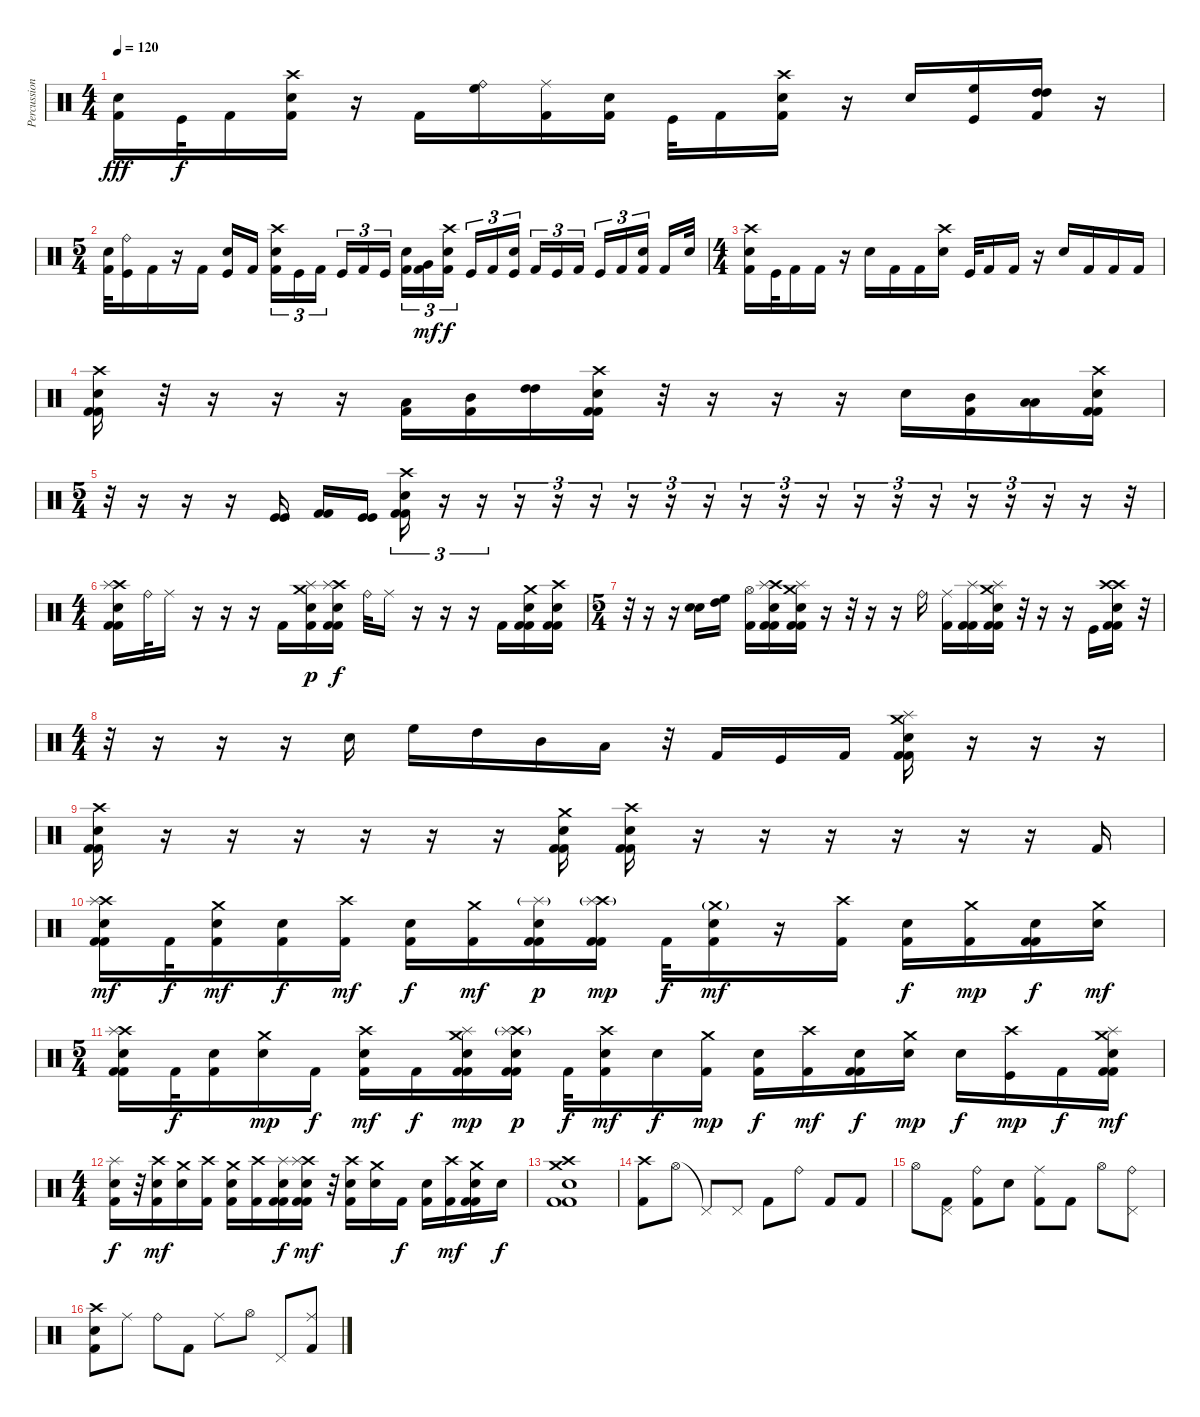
\track ("Percussioni" "Percussion") {instrument percussion}
\staff {score}
\articulation defaults
\ts (4 4)
\tempo 120
\clef neutral
\ks c
("Kick (hit) 2" "Electric Snare (hit)").16{dy fff} "Kick (hit)".32{dy f} "Kick (hit) 2".16 ("Crash high (hit)" "Kick (hit) 2" "Electric Snare (hit)").16 r.16 "Kick (hit) 2".16 ("High Floor Tom (hit)" "Ride (bell)").16 ("Ride (middle)" "Kick (hit) 2").16 ("Electric Snare (hit)" "Kick (hit) 2").16 "Kick (hit)".32 "Kick (hit) 2".16 ("Electric Snare (hit)" "Crash high (hit)" "Kick (hit) 2").16 r.16 "Electric Snare (hit)".16 ("High Floor Tom (hit)" "Kick (hit)").16 ("High Tom (hit)" "High Tom (hit)" "Kick (hit) 2").16 r.16 |
\ts (5 4)
("Electric Snare (hit)" "Kick (hit) 2").32 ("Ride (bell)" "Kick (hit)").16 "Kick (hit) 2".16 r.16 "Kick (hit) 2".16 ("Electric Snare (hit)" "Kick (hit)").16 "Kick (hit) 2".16 ("Crash high (hit)" "Electric Snare (hit)" "Kick (hit) 2").16{tu (3 2)} "Kick (hit)".16{tu (3 2)} "Kick (hit) 2".16{tu (3 2)} "Kick (hit)".16{tu (3 2)} "Kick (hit) 2".16{tu (3 2)} "Kick (hit)".16{tu (3 2)} ("Electric Snare (hit)" "Kick (hit) 2").16{tu (3 2)} ("Very Low Tom (hit)" "Kick (hit) 2").16{tu (3 2) dy mf} ("Crash high (hit)" "Electric Snare (hit)" "Kick (hit) 2").16{tu (3 2) dy f} "Kick (hit)".16{tu (3 2)} "Kick (hit) 2".16{tu (3 2)} ("Electric Snare (hit)" "Kick (hit)").16{tu (3 2)} "Kick (hit) 2".16{tu (3 2)} "Kick (hit)".16{tu (3 2)} "Kick (hit) 2".16{tu (3 2)} "Kick (hit)".16{tu (3 2)} "Kick (hit) 2".16{tu (3 2)} ("Electric Snare (hit)" "Kick (hit) 2").16{tu (3 2)} "Kick (hit) 2".16 "Electric Snare (hit)".32 |
\ts (4 4)
("Crash high (hit)" "Electric Snare (hit)" "Kick (hit) 2").16 "Kick (hit)".32 "Kick (hit) 2".16 "Kick (hit) 2".16 r.16 "Electric Snare (hit)".16 "Kick (hit) 2".16 "Kick (hit) 2".16 ("Crash high (hit)" "Electric Snare (hit)").16 "Kick (hit)".32 "Kick (hit) 2".16 "Kick (hit) 2".16 r.16 "Electric Snare (hit)".16 "Kick (hit) 2".16 "Kick (hit) 2".16 "Kick (hit) 2".16 |
("Crash high (hit)" "Kick (hit) 2" "Kick (hit) 2" "Electric Snare (hit)").16 r.32 r.16 r.16 r.16 ("Low Tom (hit)" "Kick (hit) 2").16 ("Mid Tom (hit)" "Kick (hit) 2").16 ("High Tom (hit)" "High Tom (hit)").16 ("Crash high (hit)" "Kick (hit) 2" "Kick (hit) 2" "Electric Snare (hit)").16 r.32 r.16 r.16 r.16 "Electric Snare (hit)".16 ("Mid Tom (hit)" "Kick (hit) 2").16 ("Low Tom (hit)" "Low Tom (hit)").16 ("Crash high (hit)" "Kick (hit) 2" "Kick (hit) 2" "Electric Snare (hit)").16 |
\ts (5 4)
r.32 r.16 r.16 r.16 ("Kick (hit)" "Kick (hit)").16 ("Kick (hit) 2" "Kick (hit) 2").16 ("Kick (hit)" "Kick (hit)").16 ("Crash high (hit)" "Kick (hit) 2" "Kick (hit) 2" "Electric Snare (hit)").16{tu (3 2)} r.16{tu (3 2)} r.16{tu (3 2)} r.16{tu (3 2)} r.16{tu (3 2)} r.16{tu (3 2)} r.16{tu (3 2)} r.16{tu (3 2)} r.16{tu (3 2)} r.16{tu (3 2)} r.16{tu (3 2)} r.16{tu (3 2)} r.16{tu (3 2)} r.16{tu (3 2)} r.16{tu (3 2)} r.16{tu (3 2)} r.16{tu (3 2)} r.16{tu (3 2)} r.16 r.32 |
\ts (4 4)
("Crash high (hit)" "Splash (hit)" "Kick (hit) 2" "Electric Snare (hit)" "Kick (hit) 2").16 "Ride (bell)".32 "Ride (middle)".16 r.16 r.16 r.16 "Kick (hit) 2".16 ("Crash medium (hit)" "Splash (hit)" "Electric Snare (hit)" "Kick (hit) 2").16{dy p} ("Crash high (hit)" "Splash (hit)" "Kick (hit) 2" "Electric Snare (hit)" "Kick (hit) 2").16{dy f} "Ride (bell)".32 "Ride (middle)".16 r.16 r.16 r.16 "Kick (hit) 2".16 ("Crash medium (hit)" "Kick (hit) 2" "Electric Snare (hit)" "Kick (hit) 2").16 ("Crash high (hit)" "Kick (hit) 2" "Electric Snare (hit)" "Kick (hit) 2").16 |
\ts (5 4)
r.32 r.16 r.16 ("Electric Snare (hit)" "Electric Snare (hit)").16{bu 480} ("High Floor Tom (hit)" "High Tom (hit)").16{bu 480} ("Hi-Hat (open)" "Kick (hit) 2").16 ("Crash high (hit)" "Splash (hit)" "Kick (hit) 2" "Electric Snare (hit)" "Kick (hit) 2").16 ("Crash medium (hit)" "Splash (hit)" "Kick (hit) 2" "Electric Snare (hit)" "Kick (hit) 2").16 r.16 r.32 r.16 r.16 "Ride (bell)".16 ("Ride (middle)" "Kick (hit) 2").16 ("Splash (hit)" "Kick (hit) 2" "Kick (hit) 2").16 ("Crash medium (hit)" "Splash (hit)" "Kick (hit) 2" "Electric Snare (hit)" "Kick (hit) 2").16 r.32 r.16 r.16 "Kick (hit)".16 ("Kick (hit) 2" "Kick (hit) 2" "Crash high (hit)" "Crash high (hit)" "Electric Snare (hit)").16 r.32 |
\ts (4 4)
r.32 r.16 r.16 r.16 "Electric Snare (hit)".16 "High Floor Tom (hit)".16 "High Tom (hit)".16 "Mid Tom (hit)".16 "Low Tom (hit)".16 r.32 "Kick (hit) 2".16 "Kick (hit)".16 "Kick (hit) 2".16 ("Crash medium (hit)" "Splash (hit)" "Kick (hit) 2" "Electric Snare (hit)" "Kick (hit) 2").16 r.16 r.16 r.16 |
("Crash high (hit)" "Kick (hit) 2" "Electric Snare (hit)" "Kick (hit) 2").16 r.16 r.16 r.16 r.16 r.16 r.16 ("Crash medium (hit)" "Kick (hit) 2" "Electric Snare (hit)" "Kick (hit) 2").16 ("Crash high (hit)" "Kick (hit) 2" "Electric Snare (hit)" "Kick (hit) 2").16 r.16 r.16 r.16 r.16 r.16 r.16 "Kick (hit) 2".16 |
("Crash high (hit)" "Splash (hit)" "Kick (hit) 2" "Electric Snare (hit)" "Kick (hit) 2").16{dy mf} "Kick (hit) 2".32{dy f} ("Crash medium (hit)" "Electric Snare (hit)" "Kick (hit) 2").16{dy mf} ("Electric Snare (hit)" "Kick (hit) 2").16{dy f} ("Crash high (hit)" "Kick (hit) 2").16{dy mf} ("Electric Snare (hit)" "Kick (hit) 2").16{dy f} ("Crash medium (hit)" "Kick (hit) 2").16{dy mf} ("Splash (hit)"{g} "Kick (hit) 2" "Electric Snare (hit)" "Kick (hit) 2").16{dy p} ("Crash high (hit)" "Splash (hit)"{g} "Kick (hit) 2" "Kick (hit) 2").16{dy mp} "Kick (hit) 2".32{dy f} ("Crash medium (hit)"{g} "Electric Snare (hit)" "Kick (hit) 2").16{dy mf} r.16 ("Crash high (hit)" "Kick (hit) 2").16 ("Electric Snare (hit)" "Kick (hit) 2").16{dy f} ("Crash medium (hit)" "Kick (hit) 2").16{dy mp} ("Kick (hit) 2" "Electric Snare (hit)" "Kick (hit) 2").16{dy f} ("Crash medium (hit)" "Electric Snare (hit)").16{dy mf} |
\ts (5 4)
("Crash high (hit)" "Splash (hit)" "Kick (hit) 2" "Electric Snare (hit)" "Kick (hit) 2").16 "Kick (hit) 2".32{dy f} ("Electric Snare (hit)" "Kick (hit) 2").16 ("Crash medium (hit)" "Electric Snare (hit)").16{dy mp} "Kick (hit) 2".16{dy f} ("Crash high (hit)" "Electric Snare (hit)" "Kick (hit) 2").16{dy mf} "Kick (hit) 2".16{dy f} ("Crash medium (hit)" "Splash (hit)" "Kick (hit) 2" "Electric Snare (hit)" "Kick (hit) 2").16{dy mp} ("Crash high (hit)"{g} "Splash (hit)"{g} "Kick (hit) 2" "Electric Snare (hit)" "Kick (hit) 2").16{dy p} "Kick (hit) 2".32{dy f} ("Crash high (hit)" "Electric Snare (hit)" "Kick (hit) 2").16{dy mf} "Electric Snare (hit)".16{dy f} ("Crash medium (hit)" "Kick (hit) 2").16{dy mp} ("Electric Snare (hit)" "Kick (hit) 2").16{dy f} ("Crash high (hit)" "Kick (hit) 2").16{dy mf} ("Kick (hit) 2" "Electric Snare (hit)" "Kick (hit) 2").16{dy f} ("Crash medium (hit)" "Electric Snare (hit)").16{dy mp} "Electric Snare (hit)".16{dy f} ("Crash high (hit)" "Kick (hit)").16{dy mp} "Kick (hit) 2".16{dy f} ("Crash medium (hit)" "Splash (hit)" "Kick (hit) 2" "Electric Snare (hit)" "Kick (hit) 2").16{dy mf} |
\ts (4 4)
("Splash (hit)" "Kick (hit) 2" "Electric Snare (hit)").16{dy f} r.32 ("Crash high (hit)" "Electric Snare (hit)" "Kick (hit) 2").16{dy mf} ("Crash medium (hit)" "Electric Snare (hit)").16 ("Crash high (hit)" "Kick (hit) 2").16 ("Crash medium (hit)" "Electric Snare (hit)" "Kick (hit) 2").16 ("Crash high (hit)" "Kick (hit) 2").16 ("Splash (hit)" "Kick (hit) 2" "Electric Snare (hit)" "Kick (hit) 2").16{dy f} ("Crash high (hit)" "Splash (hit)" "Kick (hit) 2" "Electric Snare (hit)" "Kick (hit) 2").16{dy mf} r.32 ("Crash high (hit)" "Electric Snare (hit)" "Kick (hit) 2").16 ("Crash medium (hit)" "Electric Snare (hit)").16 "Kick (hit) 2".16{dy f} ("Electric Snare (hit)" "Kick (hit) 2").16 ("Crash high (hit)" "Kick (hit) 2").16{dy mf} ("Crash medium (hit)" "Kick (hit) 2" "Electric Snare (hit)" "Kick (hit) 2").16 "Electric Snare (hit)".16{dy f} |
("Crash medium (hit)" "Crash high (hit)" "Kick (hit) 2" "Electric Snare (hit)" "Kick (hit) 2").1 |
("Crash high (hit)" "Kick (hit) 2").8 "Hi-Hat (open)".8 "Pedal Hi-Hat (hit)"{t}.8 "Pedal Hi-Hat (hit)".8 "Kick (hit) 2".8 "Ride (bell)".8 "Kick (hit) 2".8 "Kick (hit) 2".8 |
"Hi-Hat (open)".8 ("Pedal Hi-Hat (hit)" "Kick (hit) 2").8 ("Ride (bell)" "Kick (hit) 2").8 "Electric Snare (hit)".8 ("Ride (middle)" "Kick (hit) 2").8 "Kick (hit) 2".8 "Hi-Hat (open)".8 ("Ride (bell)" "Pedal Hi-Hat (hit)").8 |
("Crash high (hit)" "Electric Snare (hit)" "Kick (hit) 2").8 "Ride (middle)".8 "Ride (bell)".8 "Kick (hit) 2".8 "Ride (middle)".8 "Hi-Hat (open)".8 "Pedal Hi-Hat (hit)".8 ("Ride (middle)" "Kick (hit) 2").8
